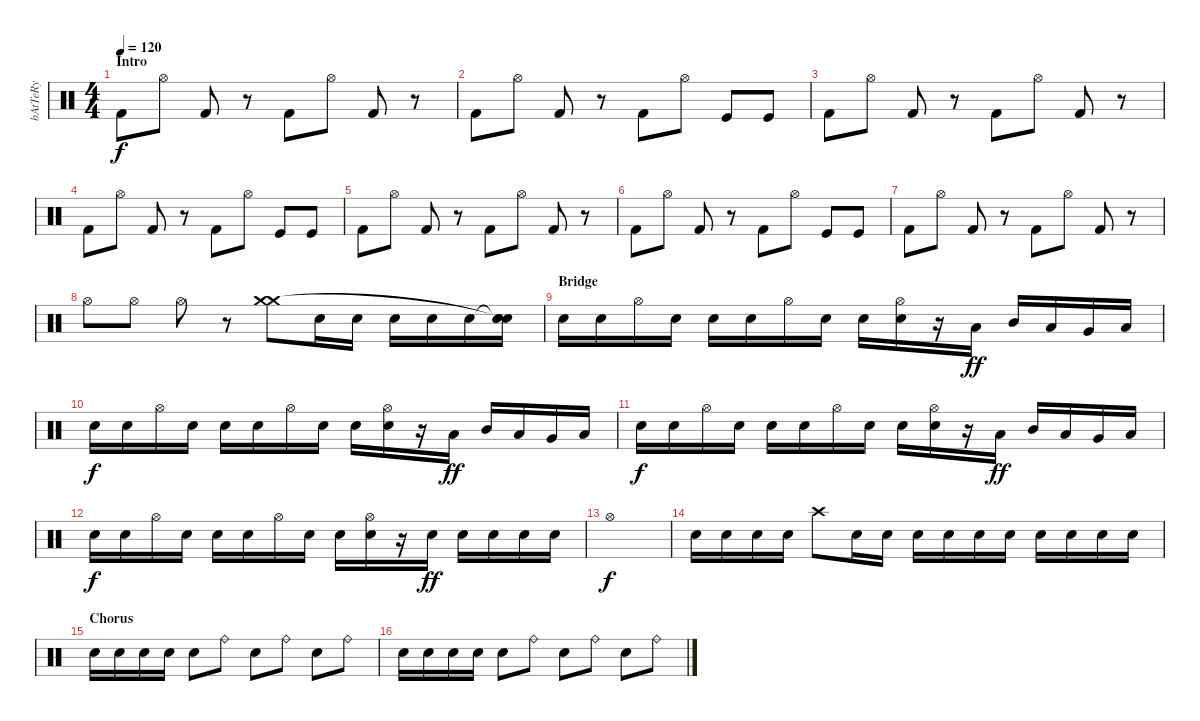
\track ("bAtTeRy" "bAtTeRy") {instrument percussion}
\staff {score}
\articulation defaults
\ts (4 4)
\section ("" "Intro")
\tempo 120
\clef neutral
\ks c "Kick (hit) 2".8{dy f} "Hi-Hat (open)".8 "Kick (hit) 2".8
r.8 "Kick (hit) 2".8 "Hi-Hat (open)".8 "Kick (hit) 2".8 r.8 |
"Kick (hit) 2".8 "Hi-Hat (open)".8 "Kick (hit) 2".8 r.8 "Kick (hit) 2".8 "Hi-Hat (open)".8 "Kick (hit)".8 "Kick (hit)".8 |
"Kick (hit) 2".8 "Hi-Hat (open)".8 "Kick (hit) 2".8 r.8 "Kick (hit) 2".8 "Hi-Hat (open)".8 "Kick (hit) 2".8 r.8 |
"Kick (hit) 2".8 "Hi-Hat (open)".8 "Kick (hit) 2".8 r.8 "Kick (hit) 2".8 "Hi-Hat (open)".8 "Kick (hit)".8 "Kick (hit)".8 |
"Kick (hit) 2".8 "Hi-Hat (open)".8 "Kick (hit) 2".8 r.8 "Kick (hit) 2".8 "Hi-Hat (open)".8 "Kick (hit) 2".8 r.8 |
"Kick (hit) 2".8 "Hi-Hat (open)".8 "Kick (hit) 2".8 r.8 "Kick (hit) 2".8 "Hi-Hat (open)".8 "Kick (hit)".8 "Kick (hit)".8 |
"Kick (hit) 2".8 "Hi-Hat (open)".8 "Kick (hit) 2".8 r.8 "Kick (hit) 2".8 "Hi-Hat (open)".8 "Kick (hit) 2".8 r.8 |
"Hi-Hat (open)".8 "Hi-Hat (open)".8 "Hi-Hat (open)".8 r.8 ("Crash medium (hit)" "Crash medium (hit)").8 "Electric Snare (hit)".16 "Electric Snare (hit)".16 "Electric Snare (hit)".16 "Electric Snare (hit)".16 "Electric Snare (hit)".16 ("Snare (hit)"{t} "Snare (hit)"{t} "Electric Snare (hit)").16 |
\section ("" "Bridge")
"Electric Snare (hit)".16 "Electric Snare (hit)".16 "Hi-Hat (open)".16 "Electric Snare (hit)".16 "Electric Snare (hit)".16 "Electric Snare (hit)".16 "Hi-Hat (open)".16 "Electric Snare (hit)".16 "Electric Snare (hit)".16 ("Hi-Hat (open)" "Electric Snare (hit)").16 r.16 "Low Tom (hit)".16{dy ff} "Mid Tom (hit)".16 "Low Tom (hit)".16 "Very Low Tom (hit)".16 "Low Floor Tom (hit)".16 |
"Electric Snare (hit)".16{dy f} "Electric Snare (hit)".16 "Hi-Hat (open)".16 "Electric Snare (hit)".16 "Electric Snare (hit)".16 "Electric Snare (hit)".16 "Hi-Hat (open)".16 "Electric Snare (hit)".16 "Electric Snare (hit)".16 ("Hi-Hat (open)" "Electric Snare (hit)").16 r.16 "Low Tom (hit)".16{dy ff} "Mid Tom (hit)".16 "Low Tom (hit)".16 "Very Low Tom (hit)".16 "Low Floor Tom (hit)".16 |
"Electric Snare (hit)".16{dy f} "Electric Snare (hit)".16 "Hi-Hat (open)".16 "Electric Snare (hit)".16 "Electric Snare (hit)".16 "Electric Snare (hit)".16 "Hi-Hat (open)".16 "Electric Snare (hit)".16 "Electric Snare (hit)".16 ("Hi-Hat (open)" "Electric Snare (hit)").16 r.16 "Low Tom (hit)".16{dy ff} "Mid Tom (hit)".16 "Low Tom (hit)".16 "Very Low Tom (hit)".16 "Low Floor Tom (hit)".16 |
"Electric Snare (hit)".16{dy f} "Electric Snare (hit)".16 "Hi-Hat (open)".16 "Electric Snare (hit)".16 "Electric Snare (hit)".16 "Electric Snare (hit)".16 "Hi-Hat (open)".16 "Electric Snare (hit)".16 "Electric Snare (hit)".16 ("Hi-Hat (open)" "Electric Snare (hit)").16 r.16 "Electric Snare (hit)".16{dy ff} "Electric Snare (hit)".16 "Electric Snare (hit)".16 "Electric Snare (hit)".16 "Electric Snare (hit)".16 |
"Hi-Hat (open)".1{dy f} |
"Electric Snare (hit)".16 "Electric Snare (hit)".16 "Electric Snare (hit)".16 "Electric Snare (hit)".16 "Crash high (hit)".8 "Electric Snare (hit)".16 "Electric Snare (hit)".16 "Electric Snare (hit)".16 "Electric Snare (hit)".16 "Electric Snare (hit)".16 "Electric Snare (hit)".16 "Snare (hit) 2".16 "Snare (hit) 2".16 "Snare (hit) 2".16 "Snare (hit) 2".16 |
\section ("" "Chorus")
"Snare (hit) 2".16 "Snare (hit) 2".16 "Snare (hit) 2".16 "Snare (hit) 2".16 "Snare (hit) 2".8 "Ride (bell)".8 "Snare (hit) 2".8 "Ride (bell)".8 "Snare (hit) 2".8 "Ride (bell)".8 |
"Snare (hit) 2".16 "Snare (hit) 2".16 "Snare (hit) 2".16 "Snare (hit) 2".16 "Snare (hit) 2".8 "Ride (bell)".8 "Snare (hit) 2".8 "Ride (bell)".8 "Snare (hit) 2".8 "Ride (bell)".8
